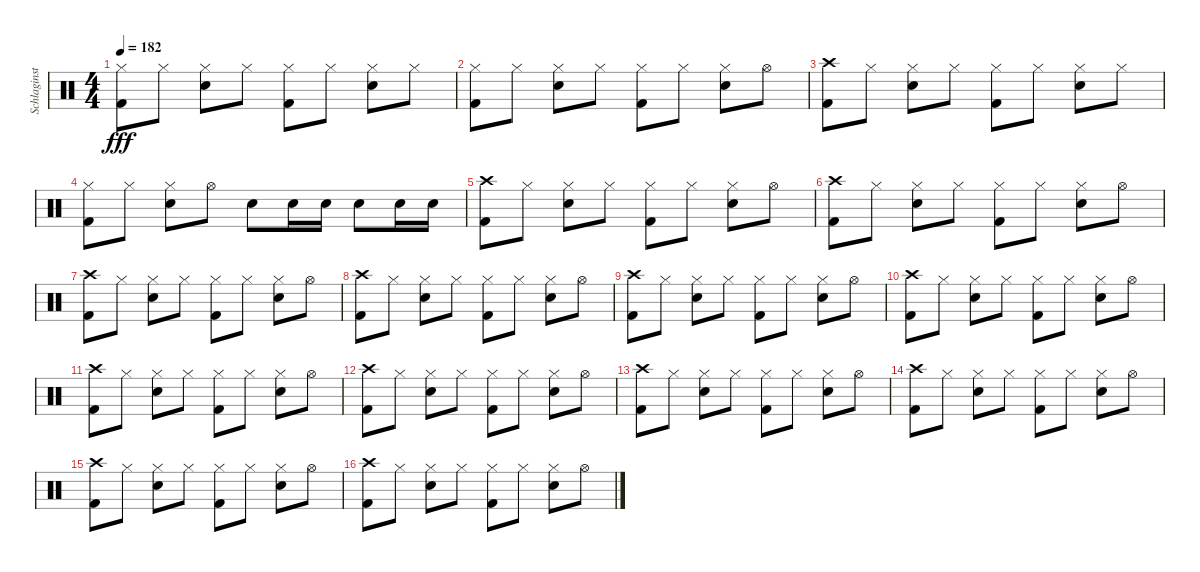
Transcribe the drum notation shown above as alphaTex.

\track ("Schlaginstrumente - Auswahl" "Schlaginst") {instrument percussion}
\staff {score}
\articulation defaults
\ts (4 4)
\tempo 182
\clef neutral
\ks c
("Kick (hit) 2" "Hi-Hat (closed)").8{dy fff} "Hi-Hat (closed)".8 ("Snare (hit) 2" "Hi-Hat (closed)").8 "Hi-Hat (closed)".8 ("Kick (hit) 2" "Hi-Hat (closed)").8 "Hi-Hat (closed)".8 ("Snare (hit) 2" "Hi-Hat (closed)").8 "Hi-Hat (closed)".8 |
("Kick (hit) 2" "Hi-Hat (closed)").8 "Hi-Hat (closed)".8 ("Snare (hit) 2" "Hi-Hat (closed)").8 "Hi-Hat (closed)".8 ("Kick (hit) 2" "Hi-Hat (closed)").8 "Hi-Hat (closed)".8 ("Snare (hit) 2" "Hi-Hat (closed)").8 "Hi-Hat (open)".8 |
("Kick (hit) 2" "Crash high (hit)").8 "Hi-Hat (closed)".8 ("Snare (hit) 2" "Hi-Hat (closed)").8 "Hi-Hat (closed)".8 ("Kick (hit) 2" "Hi-Hat (closed)").8 "Hi-Hat (closed)".8 ("Snare (hit) 2" "Hi-Hat (closed)").8 "Hi-Hat (closed)".8 |
("Kick (hit) 2" "Hi-Hat (closed)").8 "Hi-Hat (closed)".8 ("Snare (hit) 2" "Hi-Hat (closed)").8 "Hi-Hat (open)".8 "Snare (hit) 2".8 "Snare (hit) 2".16 "Snare (hit) 2".16 "Snare (hit) 2".8 "Snare (hit) 2".16 "Snare (hit) 2".16 |
("Kick (hit) 2" "Crash high (hit)").8 "Hi-Hat (closed)".8 ("Snare (hit) 2" "Hi-Hat (closed)").8 "Hi-Hat (closed)".8 ("Kick (hit) 2" "Hi-Hat (closed)").8 "Hi-Hat (closed)".8 ("Snare (hit) 2" "Hi-Hat (closed)").8 "Hi-Hat (open)".8 |
("Kick (hit) 2" "Crash high (hit)").8 "Hi-Hat (closed)".8 ("Snare (hit) 2" "Hi-Hat (closed)").8 "Hi-Hat (closed)".8 ("Kick (hit) 2" "Hi-Hat (closed)").8 "Hi-Hat (closed)".8 ("Snare (hit) 2" "Hi-Hat (closed)").8 "Hi-Hat (open)".8 |
("Kick (hit) 2" "Crash high (hit)").8 "Hi-Hat (closed)".8 ("Snare (hit) 2" "Hi-Hat (closed)").8 "Hi-Hat (closed)".8 ("Kick (hit) 2" "Hi-Hat (closed)").8 "Hi-Hat (closed)".8 ("Snare (hit) 2" "Hi-Hat (closed)").8 "Hi-Hat (open)".8 |
("Kick (hit) 2" "Crash high (hit)").8 "Hi-Hat (closed)".8 ("Snare (hit) 2" "Hi-Hat (closed)").8 "Hi-Hat (closed)".8 ("Kick (hit) 2" "Hi-Hat (closed)").8 "Hi-Hat (closed)".8 ("Snare (hit) 2" "Hi-Hat (closed)").8 "Hi-Hat (open)".8 |
("Kick (hit) 2" "Crash high (hit)").8 "Hi-Hat (closed)".8 ("Snare (hit) 2" "Hi-Hat (closed)").8 "Hi-Hat (closed)".8 ("Kick (hit) 2" "Hi-Hat (closed)").8 "Hi-Hat (closed)".8 ("Snare (hit) 2" "Hi-Hat (closed)").8 "Hi-Hat (open)".8 |
("Kick (hit) 2" "Crash high (hit)").8 "Hi-Hat (closed)".8 ("Snare (hit) 2" "Hi-Hat (closed)").8 "Hi-Hat (closed)".8 ("Kick (hit) 2" "Hi-Hat (closed)").8 "Hi-Hat (closed)".8 ("Snare (hit) 2" "Hi-Hat (closed)").8 "Hi-Hat (open)".8 |
("Kick (hit) 2" "Crash high (hit)").8 "Hi-Hat (closed)".8 ("Snare (hit) 2" "Hi-Hat (closed)").8 "Hi-Hat (closed)".8 ("Kick (hit) 2" "Hi-Hat (closed)").8 "Hi-Hat (closed)".8 ("Snare (hit) 2" "Hi-Hat (closed)").8 "Hi-Hat (open)".8 |
("Kick (hit) 2" "Crash high (hit)").8 "Hi-Hat (closed)".8 ("Snare (hit) 2" "Hi-Hat (closed)").8 "Hi-Hat (closed)".8 ("Kick (hit) 2" "Hi-Hat (closed)").8 "Hi-Hat (closed)".8 ("Snare (hit) 2" "Hi-Hat (closed)").8 "Hi-Hat (open)".8 |
("Kick (hit) 2" "Crash high (hit)").8 "Hi-Hat (closed)".8 ("Snare (hit) 2" "Hi-Hat (closed)").8 "Hi-Hat (closed)".8 ("Kick (hit) 2" "Hi-Hat (closed)").8 "Hi-Hat (closed)".8 ("Snare (hit) 2" "Hi-Hat (closed)").8 "Hi-Hat (open)".8 |
("Kick (hit) 2" "Crash high (hit)").8 "Hi-Hat (closed)".8 ("Snare (hit) 2" "Hi-Hat (closed)").8 "Hi-Hat (closed)".8 ("Kick (hit) 2" "Hi-Hat (closed)").8 "Hi-Hat (closed)".8 ("Snare (hit) 2" "Hi-Hat (closed)").8 "Hi-Hat (open)".8 |
("Kick (hit) 2" "Crash high (hit)").8 "Hi-Hat (closed)".8 ("Snare (hit) 2" "Hi-Hat (closed)").8 "Hi-Hat (closed)".8 ("Kick (hit) 2" "Hi-Hat (closed)").8 "Hi-Hat (closed)".8 ("Snare (hit) 2" "Hi-Hat (closed)").8 "Hi-Hat (open)".8 |
("Kick (hit) 2" "Crash high (hit)").8 "Hi-Hat (closed)".8 ("Snare (hit) 2" "Hi-Hat (closed)").8 "Hi-Hat (closed)".8 ("Kick (hit) 2" "Hi-Hat (closed)").8 "Hi-Hat (closed)".8 ("Snare (hit) 2" "Hi-Hat (closed)").8 "Hi-Hat (open)".8
